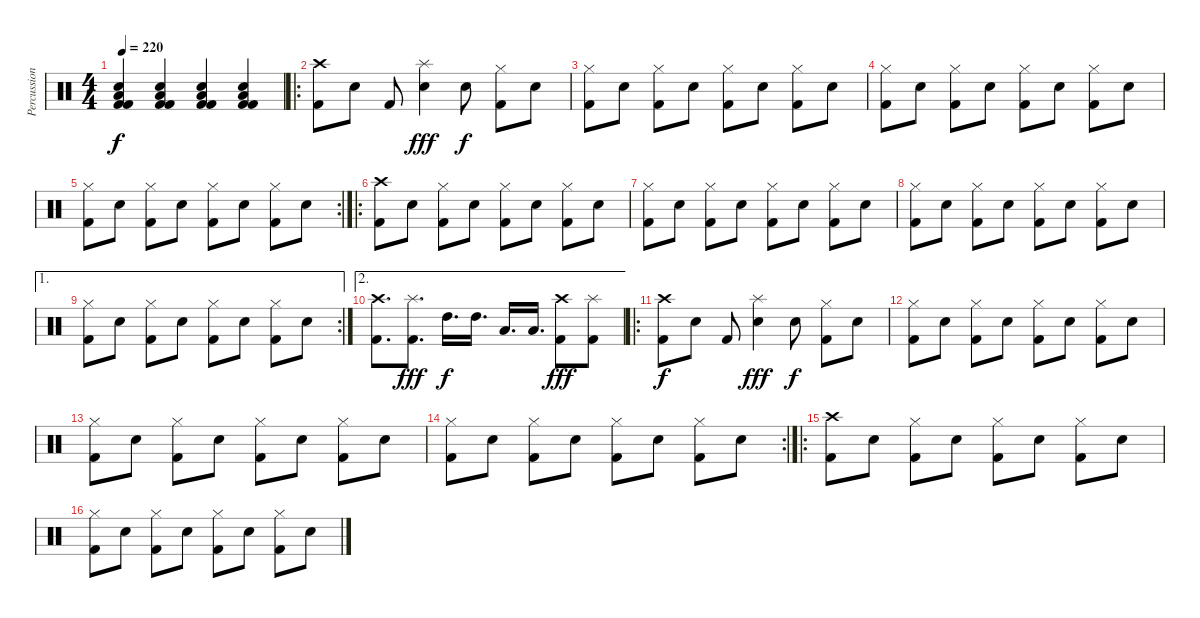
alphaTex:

\track ("Percussion" "Percussion") {instrument percussion}
\staff {score}
\articulation defaults
\ts (4 4)
\tempo 220
\clef neutral
\ks c
("Electric Snare (hit)" "Low Tom (hit)" "Kick (hit) 2" "Kick (hit) 2").4{dy f} ("Electric Snare (hit)" "Low Tom (hit)" "Kick (hit) 2" "Kick (hit) 2").4 ("Electric Snare (hit)" "Low Tom (hit)" "Kick (hit) 2" "Kick (hit) 2").4 ("Electric Snare (hit)" "Low Tom (hit)" "Kick (hit) 2" "Kick (hit) 2").4 |
\ro
("Crash high (hit)" "Kick (hit) 2").8 "Electric Snare (hit)".8 "Kick (hit) 2".8 ("Splash (hit)" "Electric Snare (hit)").4{dy fff} "Electric Snare (hit)".8{dy f} ("Hi-Hat (closed)" "Kick (hit) 2").8 "Electric Snare (hit)".8 |
("Hi-Hat (closed)" "Kick (hit) 2").8 "Electric Snare (hit)".8 ("Hi-Hat (closed)" "Kick (hit) 2").8 "Electric Snare (hit)".8 ("Hi-Hat (closed)" "Kick (hit) 2").8 "Electric Snare (hit)".8 ("Hi-Hat (closed)" "Kick (hit) 2").8 "Electric Snare (hit)".8 |
("Hi-Hat (closed)" "Kick (hit) 2").8 "Electric Snare (hit)".8 ("Hi-Hat (closed)" "Kick (hit) 2").8 "Electric Snare (hit)".8 ("Hi-Hat (closed)" "Kick (hit) 2").8 "Electric Snare (hit)".8 ("Hi-Hat (closed)" "Kick (hit) 2").8 "Electric Snare (hit)".8 |
\rc 2
("Hi-Hat (closed)" "Kick (hit) 2").8 "Electric Snare (hit)".8 ("Hi-Hat (closed)" "Kick (hit) 2").8 "Electric Snare (hit)".8 ("Hi-Hat (closed)" "Kick (hit) 2").8 "Electric Snare (hit)".8 ("Hi-Hat (closed)" "Kick (hit) 2").8 "Electric Snare (hit)".8 |
\ro
("Crash high (hit)" "Kick (hit) 2").8 "Electric Snare (hit)".8 ("Hi-Hat (closed)" "Kick (hit) 2").8 "Electric Snare (hit)".8 ("Hi-Hat (closed)" "Kick (hit) 2").8 "Electric Snare (hit)".8 ("Hi-Hat (closed)" "Kick (hit) 2").8 "Electric Snare (hit)".8 |
("Hi-Hat (closed)" "Kick (hit) 2").8 "Electric Snare (hit)".8 ("Hi-Hat (closed)" "Kick (hit) 2").8 "Electric Snare (hit)".8 ("Hi-Hat (closed)" "Kick (hit) 2").8 "Electric Snare (hit)".8 ("Hi-Hat (closed)" "Kick (hit) 2").8 "Electric Snare (hit)".8 |
("Hi-Hat (closed)" "Kick (hit) 2").8 "Electric Snare (hit)".8 ("Hi-Hat (closed)" "Kick (hit) 2").8 "Electric Snare (hit)".8 ("Hi-Hat (closed)" "Kick (hit) 2").8 "Electric Snare (hit)".8 ("Hi-Hat (closed)" "Kick (hit) 2").8 "Electric Snare (hit)".8 |
\ae 1
\rc 2
("Hi-Hat (closed)" "Kick (hit) 2").8 "Electric Snare (hit)".8 ("Hi-Hat (closed)" "Kick (hit) 2").8 "Electric Snare (hit)".8 ("Hi-Hat (closed)" "Kick (hit) 2").8 "Electric Snare (hit)".8 ("Hi-Hat (closed)" "Kick (hit) 2").8 "Electric Snare (hit)".8 |
\ae 2
("Crash high (hit)" "Kick (hit) 2").8{d} ("Splash (hit)" "Kick (hit) 2").8{d dy fff} "High Tom (hit)".16{d dy f} "High Tom (hit)".16{d} "Low Tom (hit)".16{d} "Low Tom (hit)".16{d} ("Crash high (hit)" "Kick (hit) 2").8{dy fff} ("Splash (hit)" "Kick (hit) 2").8 |
\ro
("Crash high (hit)" "Kick (hit) 2").8{dy f} "Electric Snare (hit)".8 "Kick (hit) 2".8 ("Splash (hit)" "Electric Snare (hit)").4{dy fff} "Electric Snare (hit)".8{dy f} ("Hi-Hat (closed)" "Kick (hit) 2").8 "Electric Snare (hit)".8 |
("Hi-Hat (closed)" "Kick (hit) 2").8 "Electric Snare (hit)".8 ("Hi-Hat (closed)" "Kick (hit) 2").8 "Electric Snare (hit)".8 ("Hi-Hat (closed)" "Kick (hit) 2").8 "Electric Snare (hit)".8 ("Hi-Hat (closed)" "Kick (hit) 2").8 "Electric Snare (hit)".8 |
("Hi-Hat (closed)" "Kick (hit) 2").8 "Electric Snare (hit)".8 ("Hi-Hat (closed)" "Kick (hit) 2").8 "Electric Snare (hit)".8 ("Hi-Hat (closed)" "Kick (hit) 2").8 "Electric Snare (hit)".8 ("Hi-Hat (closed)" "Kick (hit) 2").8 "Electric Snare (hit)".8 |
\rc 2
("Hi-Hat (closed)" "Kick (hit) 2").8 "Electric Snare (hit)".8 ("Hi-Hat (closed)" "Kick (hit) 2").8 "Electric Snare (hit)".8 ("Hi-Hat (closed)" "Kick (hit) 2").8 "Electric Snare (hit)".8 ("Hi-Hat (closed)" "Kick (hit) 2").8 "Electric Snare (hit)".8 |
\ro
("Crash high (hit)" "Kick (hit) 2").8 "Electric Snare (hit)".8 ("Hi-Hat (closed)" "Kick (hit) 2").8 "Electric Snare (hit)".8 ("Hi-Hat (closed)" "Kick (hit) 2").8 "Electric Snare (hit)".8 ("Hi-Hat (closed)" "Kick (hit) 2").8 "Electric Snare (hit)".8 |
("Hi-Hat (closed)" "Kick (hit) 2").8 "Electric Snare (hit)".8 ("Hi-Hat (closed)" "Kick (hit) 2").8 "Electric Snare (hit)".8 ("Hi-Hat (closed)" "Kick (hit) 2").8 "Electric Snare (hit)".8 ("Hi-Hat (closed)" "Kick (hit) 2").8 "Electric Snare (hit)".8
